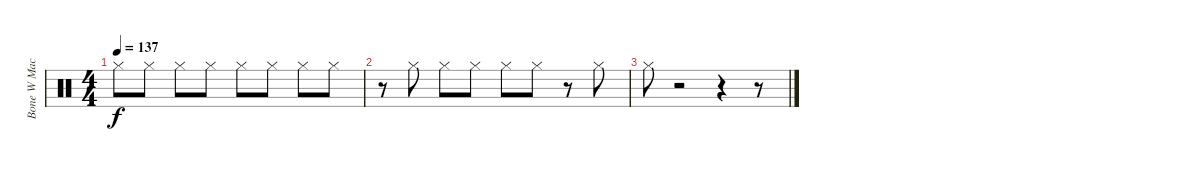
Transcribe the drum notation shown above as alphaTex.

\track ("Bone W Machine Cimbals" "Bone W Mac") {instrument percussion}
\staff {score}
\articulation defaults
\ts (4 4)
\tempo 137
\clef neutral
\ks c "Hi-Hat (closed)".8{dy f} "Hi-Hat (closed)".8 "Hi-Hat (closed)".8 "Hi-Hat (closed)".8 "Hi-Hat (closed)".8 "Hi-Hat (closed)".8 "Hi-Hat (closed)".8 "Hi-Hat (closed)".8
|
r.8 "Hi-Hat (closed)".8 "Hi-Hat (closed)".8 "Hi-Hat (closed)".8 "Hi-Hat (closed)".8 "Hi-Hat (closed)".8 r.8 "Hi-Hat (closed)".8 |
"Hi-Hat (closed)".8 r.2 r.4 r.8
